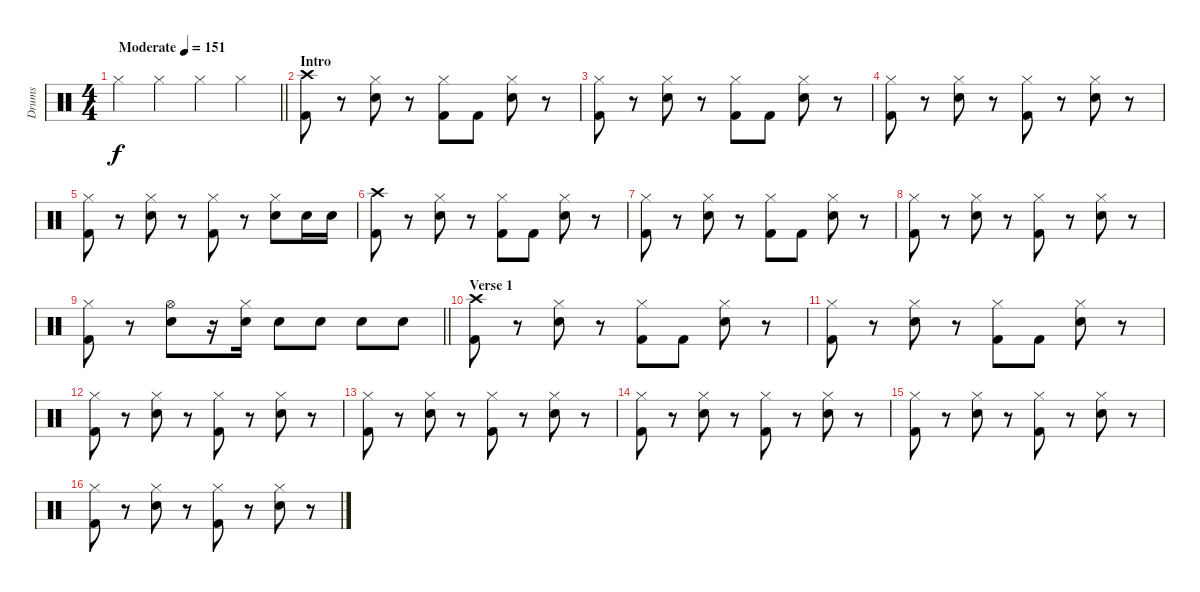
\track ("Drums" "Drums") {instrument percussion}
\staff {score}
\articulation defaults
\ts (4 4)
\tempo (151 "Moderate")
\clef neutral
\barLineRight lightlight
\ks c "Hi-Hat (closed)".4{dy f} "Hi-Hat (closed)".4 "Hi-Hat (closed)".4 "Hi-Hat (closed)".4
|
\section ("" "Intro")
("Crash high (hit)" "Kick (hit) 2").8 r.8 ("Hi-Hat (closed)" "Snare (hit) 2").8 r.8 ("Hi-Hat (closed)" "Kick (hit) 2").8 "Kick (hit) 2".8 ("Hi-Hat (closed)" "Snare (hit) 2").8 r.8 |
("Hi-Hat (closed)" "Kick (hit) 2").8 r.8 ("Hi-Hat (closed)" "Snare (hit) 2").8 r.8 ("Hi-Hat (closed)" "Kick (hit) 2").8 "Kick (hit) 2".8 ("Hi-Hat (closed)" "Snare (hit) 2").8 r.8 |
("Hi-Hat (closed)" "Kick (hit) 2").8 r.8 ("Hi-Hat (closed)" "Snare (hit) 2").8 r.8 ("Hi-Hat (closed)" "Kick (hit) 2").8 r.8 ("Hi-Hat (closed)" "Snare (hit) 2").8 r.8 |
("Hi-Hat (closed)" "Kick (hit) 2").8 r.8 ("Hi-Hat (closed)" "Snare (hit) 2").8 r.8 ("Hi-Hat (closed)" "Kick (hit) 2").8 r.8 ("Hi-Hat (closed)" "Snare (hit) 2").8 "Snare (hit) 2".16 "Snare (hit) 2".16 |
("Crash high (hit)" "Kick (hit) 2").8 r.8 ("Hi-Hat (closed)" "Snare (hit) 2").8 r.8 ("Hi-Hat (closed)" "Kick (hit) 2").8 "Kick (hit) 2".8 ("Hi-Hat (closed)" "Snare (hit) 2").8 r.8 |
("Hi-Hat (closed)" "Kick (hit) 2").8 r.8 ("Hi-Hat (closed)" "Snare (hit) 2").8 r.8 ("Hi-Hat (closed)" "Kick (hit) 2").8 "Kick (hit) 2".8 ("Hi-Hat (closed)" "Snare (hit) 2").8 r.8 |
("Hi-Hat (closed)" "Kick (hit) 2").8 r.8 ("Hi-Hat (closed)" "Snare (hit) 2").8 r.8 ("Hi-Hat (closed)" "Kick (hit) 2").8 r.8 ("Hi-Hat (closed)" "Snare (hit) 2").8 r.8 |
\barLineRight lightlight
("Hi-Hat (closed)" "Kick (hit) 2").8 r.8 ("Hi-Hat (open)" "Snare (hit) 2").8 r.16 ("Hi-Hat (closed)" "Snare (hit) 2").16 "Snare (hit) 2".8 "Snare (hit) 2".8 "Snare (hit) 2".8 "Snare (hit) 2".8 |
\section ("" "Verse 1")
("Crash high (hit)" "Kick (hit) 2").8 r.8 ("Hi-Hat (closed)" "Snare (hit) 2").8 r.8 ("Hi-Hat (closed)" "Kick (hit) 2").8 "Kick (hit) 2".8 ("Hi-Hat (closed)" "Snare (hit) 2").8 r.8 |
("Hi-Hat (closed)" "Kick (hit) 2").8 r.8 ("Hi-Hat (closed)" "Snare (hit) 2").8 r.8 ("Hi-Hat (closed)" "Kick (hit) 2").8 "Kick (hit) 2".8 ("Hi-Hat (closed)" "Snare (hit) 2").8 r.8 |
("Hi-Hat (closed)" "Kick (hit) 2").8 r.8 ("Hi-Hat (closed)" "Snare (hit) 2").8 r.8 ("Hi-Hat (closed)" "Kick (hit) 2").8 r.8 ("Hi-Hat (closed)" "Snare (hit) 2").8 r.8 |
("Hi-Hat (closed)" "Kick (hit) 2").8 r.8 ("Hi-Hat (closed)" "Snare (hit) 2").8 r.8 ("Hi-Hat (closed)" "Kick (hit) 2").8 r.8 ("Hi-Hat (closed)" "Snare (hit) 2").8 r.8 |
("Hi-Hat (closed)" "Kick (hit) 2").8 r.8 ("Hi-Hat (closed)" "Snare (hit) 2").8 r.8 ("Hi-Hat (closed)" "Kick (hit) 2").8 r.8 ("Hi-Hat (closed)" "Snare (hit) 2").8 r.8 |
("Hi-Hat (closed)" "Kick (hit) 2").8 r.8 ("Hi-Hat (closed)" "Snare (hit) 2").8 r.8 ("Hi-Hat (closed)" "Kick (hit) 2").8 r.8 ("Hi-Hat (closed)" "Snare (hit) 2").8 r.8 |
("Hi-Hat (closed)" "Kick (hit) 2").8 r.8 ("Hi-Hat (closed)" "Snare (hit) 2").8 r.8 ("Hi-Hat (closed)" "Kick (hit) 2").8 r.8 ("Hi-Hat (closed)" "Snare (hit) 2").8 r.8
